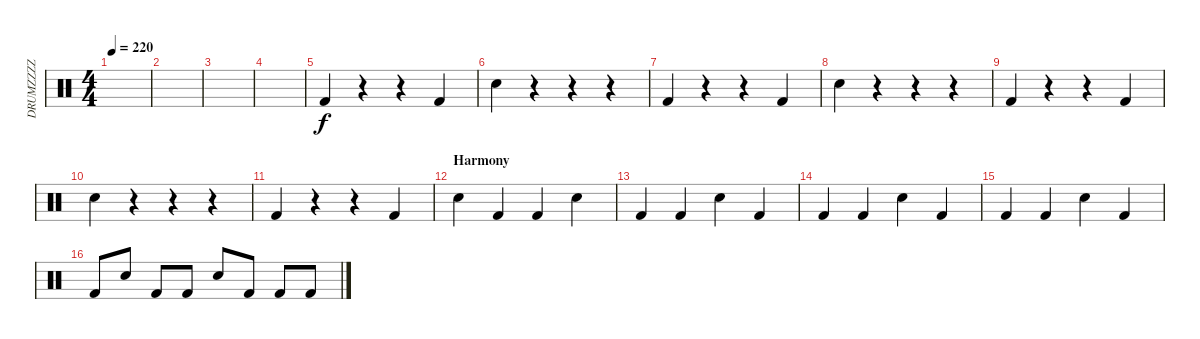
\track ("DRUMZZZZ" "DRUMZZZZ") {instrument percussion}
\staff {score}
\articulation defaults
\ts (4 4)
\tempo 220
\clef neutral
\ks c
|
|
|
|
"Kick (hit) 2".4 r.4 r.4 "Kick (hit) 2".4 |
"Electric Snare (hit)".4 r.4 r.4 r.4 |
"Kick (hit) 2".4 r.4 r.4 "Kick (hit) 2".4 |
"Electric Snare (hit)".4 r.4 r.4 r.4 |
"Kick (hit) 2".4 r.4 r.4 "Kick (hit) 2".4 |
"Electric Snare (hit)".4 r.4 r.4 r.4 |
"Kick (hit) 2".4 r.4 r.4 "Kick (hit) 2".4 |
\section ("" "Harmony")
"Electric Snare (hit)".4 "Kick (hit) 2".4 "Kick (hit) 2".4 "Electric Snare (hit)".4 |
"Kick (hit) 2".4 "Kick (hit) 2".4 "Electric Snare (hit)".4 "Kick (hit) 2".4 |
"Kick (hit) 2".4 "Kick (hit) 2".4 "Electric Snare (hit)".4 "Kick (hit) 2".4 |
"Kick (hit) 2".4 "Kick (hit) 2".4 "Electric Snare (hit)".4 "Kick (hit) 2".4 |
"Kick (hit) 2".8 "Electric Snare (hit)".8 "Kick (hit) 2".8 "Kick (hit) 2".8 "Electric Snare (hit)".8 "Kick (hit) 2".8 "Kick (hit) 2".8 "Kick (hit) 2".8
